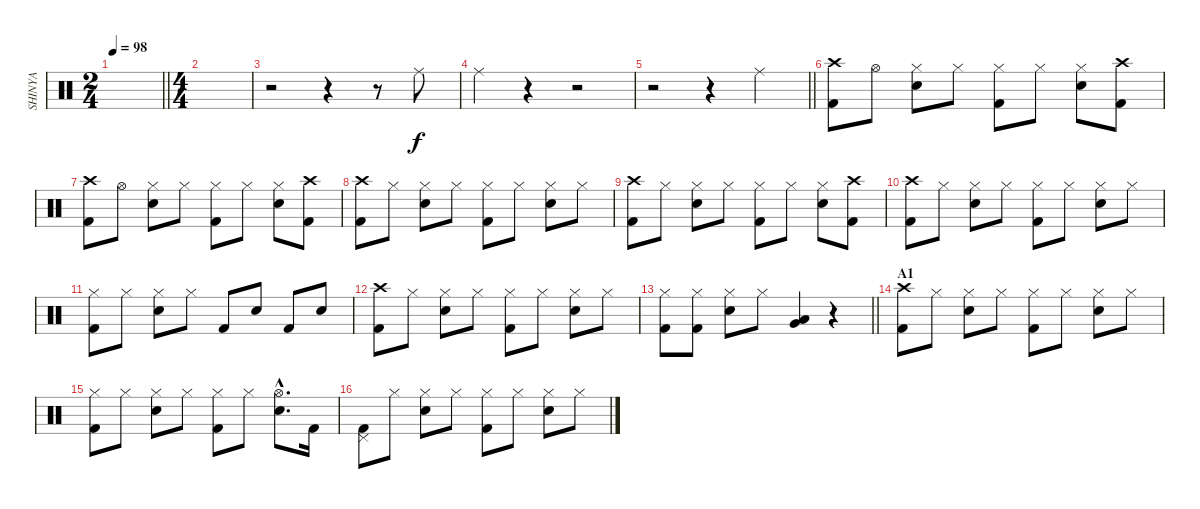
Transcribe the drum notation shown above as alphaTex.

\track ("SHINYA" "SHINYA") {instrument percussion}
\staff {score}
\articulation defaults
\ts (2 4)
\tempo 98
\clef neutral
\barLineRight lightlight
\ks c
|
\ts (4 4)
|
r.2 r.4 r.8 "Ride (middle)".8 |
"Ride (middle)".4 r.4 r.2 |
\barLineRight lightlight
r.2 r.4 "Ride (middle)".4 |
("Crash high (hit)" "Kick (hit) 2").8 "Hi-Hat (open)".8 ("Hi-Hat (closed)" "Snare (hit) 2").8 "Hi-Hat (closed)".8 ("Hi-Hat (closed)" "Kick (hit) 2").8 "Hi-Hat (closed)".8 ("Hi-Hat (closed)" "Snare (hit) 2").8 ("Crash high (hit)" "Kick (hit) 2").8 |
("Crash high (hit)" "Kick (hit) 2").8 "Hi-Hat (open)".8 ("Hi-Hat (closed)" "Snare (hit) 2").8 "Hi-Hat (closed)".8 ("Hi-Hat (closed)" "Kick (hit) 2").8 "Hi-Hat (closed)".8 ("Hi-Hat (closed)" "Snare (hit) 2").8 ("Crash high (hit)" "Kick (hit) 2").8 |
("Crash high (hit)" "Kick (hit) 2").8 "Hi-Hat (closed)".8 ("Hi-Hat (closed)" "Snare (hit) 2").8 "Hi-Hat (closed)".8 ("Hi-Hat (closed)" "Kick (hit) 2").8 "Hi-Hat (closed)".8 ("Hi-Hat (closed)" "Snare (hit) 2").8 "Hi-Hat (closed)".8 |
("Crash high (hit)" "Kick (hit) 2").8 "Hi-Hat (closed)".8 ("Hi-Hat (closed)" "Snare (hit) 2").8 "Hi-Hat (closed)".8 ("Hi-Hat (closed)" "Kick (hit) 2").8 "Hi-Hat (closed)".8 ("Hi-Hat (closed)" "Snare (hit) 2").8 ("Crash high (hit)" "Kick (hit) 2").8 |
("Crash high (hit)" "Kick (hit) 2").8 "Hi-Hat (closed)".8 ("Hi-Hat (closed)" "Snare (hit) 2").8 "Hi-Hat (closed)".8 ("Hi-Hat (closed)" "Kick (hit) 2").8 "Hi-Hat (closed)".8 ("Hi-Hat (closed)" "Snare (hit) 2").8 "Hi-Hat (closed)".8 |
("Hi-Hat (closed)" "Kick (hit) 2").8 "Hi-Hat (closed)".8 ("Hi-Hat (closed)" "Snare (hit) 2").8 "Hi-Hat (closed)".8 "Kick (hit) 2".8 "Snare (hit) 2".8 "Kick (hit) 2".8 "Snare (hit) 2".8 |
("Crash high (hit)" "Kick (hit) 2").8 "Hi-Hat (closed)".8 ("Hi-Hat (closed)" "Snare (hit) 2").8 "Hi-Hat (closed)".8 ("Hi-Hat (closed)" "Kick (hit) 2").8 "Hi-Hat (closed)".8 ("Hi-Hat (closed)" "Snare (hit) 2").8 "Hi-Hat (closed)".8 |
\barLineRight lightlight
("Hi-Hat (closed)" "Kick (hit) 2").8 ("Hi-Hat (closed)" "Kick (hit) 2").8 ("Hi-Hat (closed)" "Snare (hit) 2").8 "Hi-Hat (closed)".8 ("Very Low Tom (hit)" "Low Floor Tom (hit)").4 r.4 |
\section ("" "A1")
("Crash high (hit)" "Kick (hit) 2").8 "Hi-Hat (closed)".8 ("Hi-Hat (closed)" "Snare (hit) 2").8 "Hi-Hat (closed)".8 ("Hi-Hat (closed)" "Kick (hit) 2").8 "Hi-Hat (closed)".8 ("Hi-Hat (closed)" "Snare (hit) 2").8 "Hi-Hat (closed)".8 |
("Hi-Hat (closed)" "Kick (hit) 2").8 "Hi-Hat (closed)".8 ("Hi-Hat (closed)" "Snare (hit) 2").8 "Hi-Hat (closed)".8 ("Hi-Hat (closed)" "Kick (hit) 2").8 "Hi-Hat (closed)".8 ("Hi-Hat (open)"{hac} "Snare (hit) 2"{hac}).8{d} "Kick (hit) 2".16 |
("Pedal Hi-Hat (hit)" "Kick (hit) 2").8 "Hi-Hat (closed)".8 ("Hi-Hat (closed)" "Snare (hit) 2").8 "Hi-Hat (closed)".8 ("Hi-Hat (closed)" "Kick (hit) 2").8 "Hi-Hat (closed)".8 ("Hi-Hat (closed)" "Snare (hit) 2").8 "Hi-Hat (closed)".8
